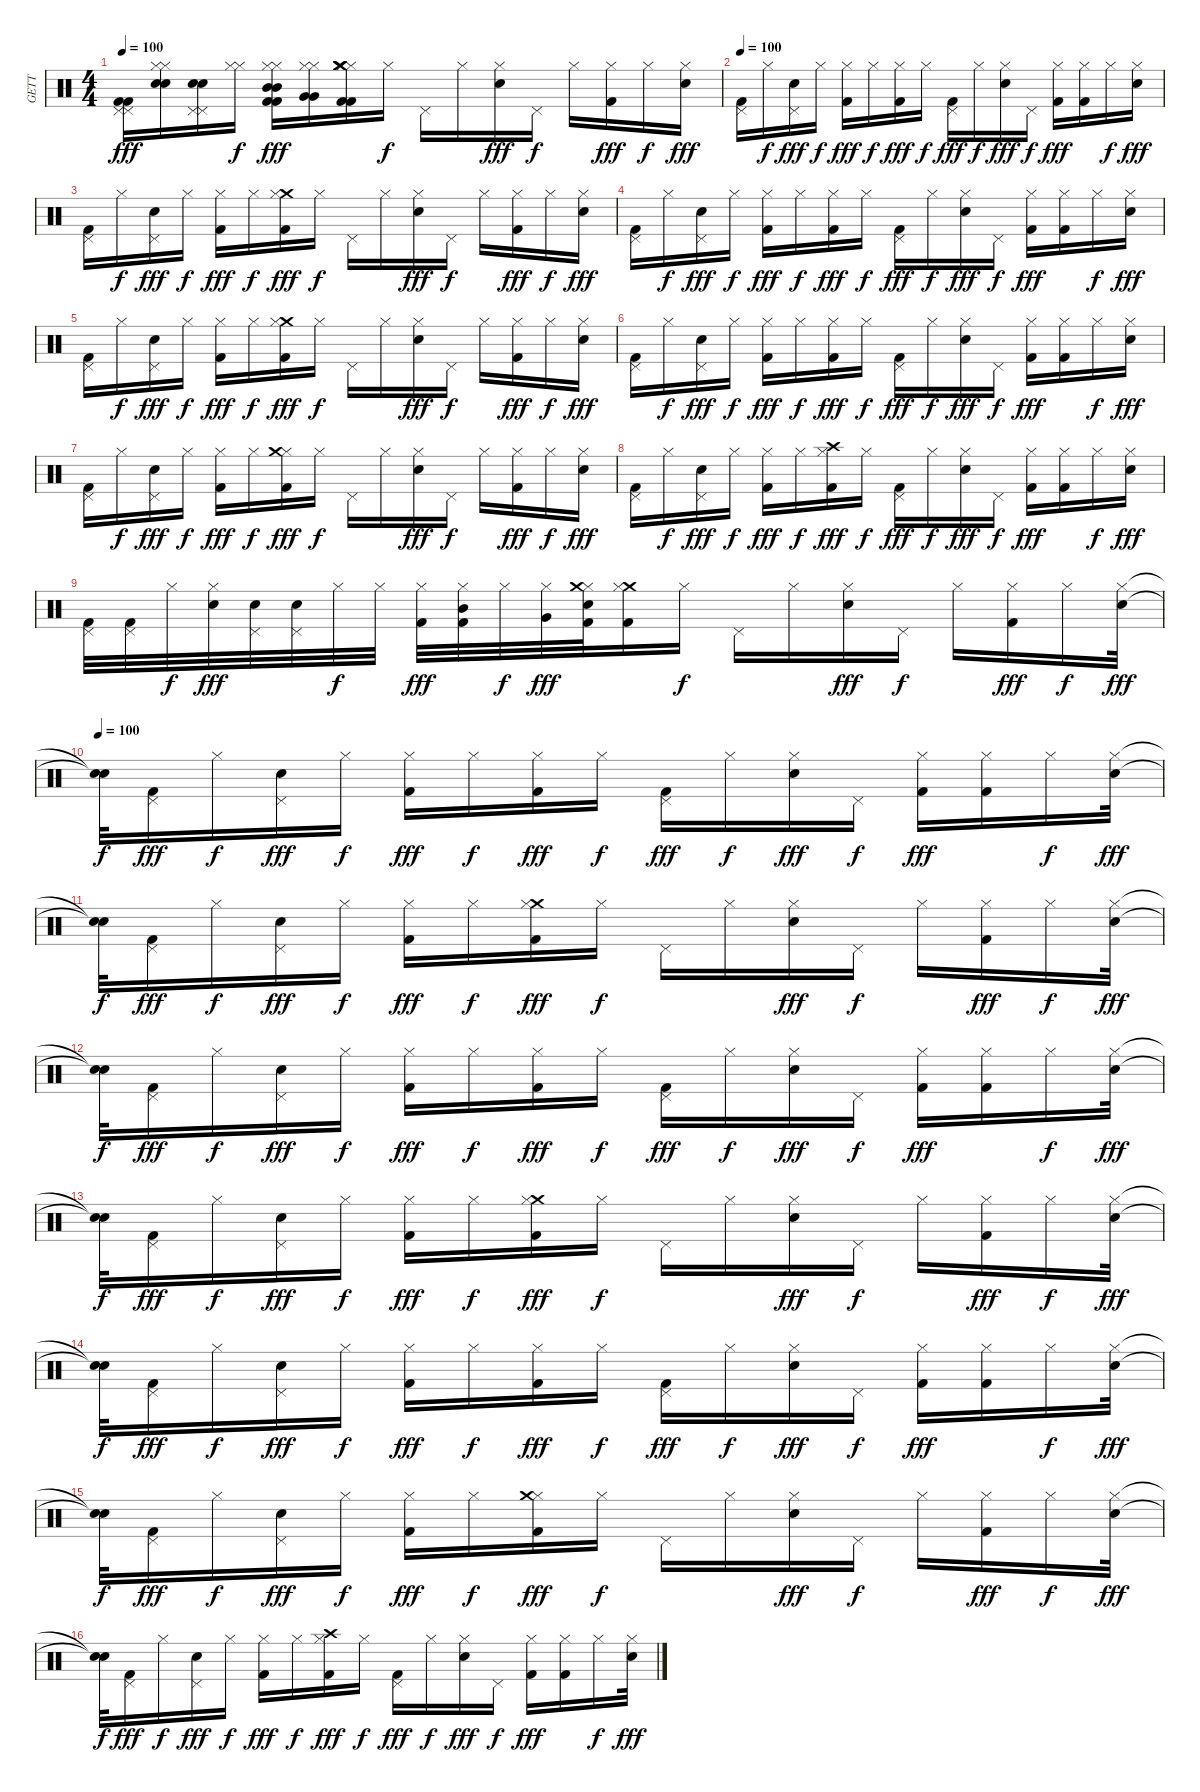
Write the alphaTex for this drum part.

\track ("GETT" "GETT") {instrument percussion}
\staff {score}
\articulation defaults
\ts (4 4)
\tempo 100
\clef neutral
\ks c
("Pedal Hi-Hat (hit)" "Kick (hit) 2" "Pedal Hi-Hat (hit)" "Kick (hit) 2").16{dy fff volume 16} ("Hi-Hat (closed)" "Snare (hit) 2" "Hi-Hat (closed)" "Snare (hit) 2").16 ("Pedal Hi-Hat (hit)" "Snare (hit) 2" "Pedal Hi-Hat (hit)" "Snare (hit) 2").16 ("Hi-Hat (closed)" "Hi-Hat (closed)").16{dy f} ("Mid Tom (hit)" "Hi-Hat (closed)" "Kick (hit) 2" "Mid Tom (hit)" "Hi-Hat (closed)" "Kick (hit) 2").16{dy fff} ("Very Low Tom (hit)" "Hi-Hat (closed)" "Very Low Tom (hit)" "Hi-Hat (closed)").16 ("Hi-Hat (closed)" "Crash medium (hit)" "Kick (hit) 2" "Kick (hit) 2" "Crash medium (hit)" "Hi-Hat (closed)").16 "Hi-Hat (closed)".16{dy f} "Pedal Hi-Hat (hit)".16 "Hi-Hat (closed)".16 ("Hi-Hat (closed)" "Snare (hit) 2").16{dy fff} "Pedal Hi-Hat (hit)".16{dy f} "Hi-Hat (closed)".16 ("Kick (hit) 2" "Hi-Hat (closed)").16{dy fff} "Hi-Hat (closed)".16{dy f} ("Snare (hit) 2" "Hi-Hat (closed)").16{dy fff} |
\tempo 100
("Pedal Hi-Hat (hit)" "Kick (hit) 2").16 "Hi-Hat (closed)".16{dy f} ("Pedal Hi-Hat (hit)" "Snare (hit) 2").16{dy fff} "Hi-Hat (closed)".16{dy f} ("Hi-Hat (closed)" "Kick (hit) 2").16{dy fff} "Hi-Hat (closed)".16{dy f} ("Kick (hit) 2" "Hi-Hat (closed)").16{dy fff} "Hi-Hat (closed)".16{dy f} ("Pedal Hi-Hat (hit)" "Kick (hit) 2").16{dy fff} "Hi-Hat (closed)".16{dy f} ("Hi-Hat (closed)" "Snare (hit) 2").16{dy fff} "Pedal Hi-Hat (hit)".16{dy f} ("Kick (hit) 2" "Hi-Hat (closed)").16{dy fff} ("Hi-Hat (closed)" "Kick (hit) 2").16 "Hi-Hat (closed)".16{dy f} ("Snare (hit) 2" "Hi-Hat (closed)").16{dy fff} |
("Kick (hit) 2" "Pedal Hi-Hat (hit)").16 "Hi-Hat (closed)".16{dy f} ("Snare (hit) 2" "Pedal Hi-Hat (hit)").16{dy fff} "Hi-Hat (closed)".16{dy f} ("Hi-Hat (closed)" "Kick (hit) 2").16{dy fff} "Hi-Hat (closed)".16{dy f} ("Kick (hit) 2" "Crash medium (hit)" "Hi-Hat (closed)").16{dy fff} "Hi-Hat (closed)".16{dy f} "Pedal Hi-Hat (hit)".16 "Hi-Hat (closed)".16 ("Hi-Hat (closed)" "Snare (hit) 2").16{dy fff} "Pedal Hi-Hat (hit)".16{dy f} "Hi-Hat (closed)".16 ("Kick (hit) 2" "Hi-Hat (closed)").16{dy fff} "Hi-Hat (closed)".16{dy f} ("Snare (hit) 2" "Hi-Hat (closed)").16{dy fff} |
("Pedal Hi-Hat (hit)" "Kick (hit) 2").16 "Hi-Hat (closed)".16{dy f} ("Pedal Hi-Hat (hit)" "Snare (hit) 2").16{dy fff} "Hi-Hat (closed)".16{dy f} ("Hi-Hat (closed)" "Kick (hit) 2").16{dy fff} "Hi-Hat (closed)".16{dy f} ("Kick (hit) 2" "Hi-Hat (closed)").16{dy fff} "Hi-Hat (closed)".16{dy f} ("Kick (hit) 2" "Pedal Hi-Hat (hit)").16{dy fff} "Hi-Hat (closed)".16{dy f} ("Snare (hit) 2" "Hi-Hat (closed)").16{dy fff} "Pedal Hi-Hat (hit)".16{dy f} ("Kick (hit) 2" "Hi-Hat (closed)").16{dy fff} ("Kick (hit) 2" "Hi-Hat (closed)").16 "Hi-Hat (closed)".16{dy f} ("Snare (hit) 2" "Hi-Hat (closed)").16{dy fff} |
("Pedal Hi-Hat (hit)" "Kick (hit) 2").16 "Hi-Hat (closed)".16{dy f} ("Pedal Hi-Hat (hit)" "Snare (hit) 2").16{dy fff} "Hi-Hat (closed)".16{dy f} ("Kick (hit) 2" "Hi-Hat (closed)").16{dy fff} "Hi-Hat (closed)".16{dy f} ("Crash medium (hit)" "Hi-Hat (closed)" "Kick (hit) 2").16{dy fff} "Hi-Hat (closed)".16{dy f} "Pedal Hi-Hat (hit)".16 "Hi-Hat (closed)".16 ("Hi-Hat (closed)" "Snare (hit) 2").16{dy fff} "Pedal Hi-Hat (hit)".16{dy f} "Hi-Hat (closed)".16 ("Hi-Hat (closed)" "Kick (hit) 2").16{dy fff} "Hi-Hat (closed)".16{dy f} ("Hi-Hat (closed)" "Snare (hit) 2").16{dy fff} |
("Pedal Hi-Hat (hit)" "Kick (hit) 2").16 "Hi-Hat (closed)".16{dy f} ("Pedal Hi-Hat (hit)" "Snare (hit) 2").16{dy fff} "Hi-Hat (closed)".16{dy f} ("Hi-Hat (closed)" "Kick (hit) 2").16{dy fff} "Hi-Hat (closed)".16{dy f} ("Kick (hit) 2" "Hi-Hat (closed)").16{dy fff} "Hi-Hat (closed)".16{dy f} ("Pedal Hi-Hat (hit)" "Kick (hit) 2").16{dy fff} "Hi-Hat (closed)".16{dy f} ("Hi-Hat (closed)" "Snare (hit) 2").16{dy fff} "Pedal Hi-Hat (hit)".16{dy f} ("Hi-Hat (closed)" "Kick (hit) 2").16{dy fff} ("Kick (hit) 2" "Hi-Hat (closed)").16 "Hi-Hat (closed)".16{dy f} ("Hi-Hat (closed)" "Snare (hit) 2").16{dy fff} |
("Pedal Hi-Hat (hit)" "Kick (hit) 2").16 "Hi-Hat (closed)".16{dy f} ("Pedal Hi-Hat (hit)" "Snare (hit) 2").16{dy fff} "Hi-Hat (closed)".16{dy f} ("Hi-Hat (closed)" "Kick (hit) 2").16{dy fff} "Hi-Hat (closed)".16{dy f} ("Kick (hit) 2" "Hi-Hat (closed)" "Crash medium (hit)").16{dy fff} "Hi-Hat (closed)".16{dy f} "Pedal Hi-Hat (hit)".16 "Hi-Hat (closed)".16 ("Hi-Hat (closed)" "Snare (hit) 2").16{dy fff} "Pedal Hi-Hat (hit)".16{dy f} "Hi-Hat (closed)".16 ("Hi-Hat (closed)" "Kick (hit) 2").16{dy fff} "Hi-Hat (closed)".16{dy f} ("Hi-Hat (closed)" "Snare (hit) 2").16{dy fff} |
("Pedal Hi-Hat (hit)" "Kick (hit) 2").16 "Hi-Hat (closed)".16{dy f} ("Pedal Hi-Hat (hit)" "Snare (hit) 2").16{dy fff} "Hi-Hat (closed)".16{dy f} ("Hi-Hat (closed)" "Kick (hit) 2").16{dy fff} "Hi-Hat (closed)".16{dy f} ("Crash high (hit)" "Hi-Hat (closed)" "Kick (hit) 2").16{dy fff} "Hi-Hat (closed)".16{dy f} ("Pedal Hi-Hat (hit)" "Kick (hit) 2").16{dy fff} "Hi-Hat (closed)".16{dy f} ("Hi-Hat (closed)" "Snare (hit) 2").16{dy fff} "Pedal Hi-Hat (hit)".16{dy f} ("Kick (hit) 2" "Hi-Hat (closed)").16{dy fff} ("Kick (hit) 2" "Hi-Hat (closed)").16 "Hi-Hat (closed)".16{dy f} ("Hi-Hat (closed)" "Snare (hit) 2").16{dy fff} |
("Pedal Hi-Hat (hit)" "Kick (hit) 2").32 ("Pedal Hi-Hat (hit)" "Kick (hit) 2").32{volume 16} "Hi-Hat (closed)".32{dy f} ("Hi-Hat (closed)" "Snare (hit) 2").32{dy fff} ("Snare (hit) 2" "Pedal Hi-Hat (hit)").32 ("Pedal Hi-Hat (hit)" "Snare (hit) 2").32 "Hi-Hat (closed)".32{dy f} "Hi-Hat (closed)".32 ("Kick (hit) 2" "Hi-Hat (closed)").32{dy fff} ("Mid Tom (hit)" "Hi-Hat (closed)" "Kick (hit) 2").32 "Hi-Hat (closed)".32{dy f} ("Very Low Tom (hit)" "Hi-Hat (closed)").32{dy fff} ("Hi-Hat (closed)" "Kick (hit) 2" "Crash medium (hit)" "Snare (hit) 2").32 ("Kick (hit) 2" "Crash medium (hit)" "Hi-Hat (closed)").16 "Hi-Hat (closed)".16{dy f} "Pedal Hi-Hat (hit)".16 "Hi-Hat (closed)".16 ("Hi-Hat (closed)" "Snare (hit) 2").16{dy fff} "Pedal Hi-Hat (hit)".16{dy f} "Hi-Hat (closed)".16 ("Kick (hit) 2" "Hi-Hat (closed)").16{dy fff} "Hi-Hat (closed)".16{dy f} ("Snare (hit) 2" "Hi-Hat (closed)").32{dy fff} |
\tempo 100
("Snare (hit)"{t} "Snare (hit)"{t}).32{dy f} ("Pedal Hi-Hat (hit)" "Kick (hit) 2").16{dy fff} "Hi-Hat (closed)".16{dy f} ("Pedal Hi-Hat (hit)" "Snare (hit) 2").16{dy fff} "Hi-Hat (closed)".16{dy f} ("Hi-Hat (closed)" "Kick (hit) 2").16{dy fff} "Hi-Hat (closed)".16{dy f} ("Kick (hit) 2" "Hi-Hat (closed)").16{dy fff} "Hi-Hat (closed)".16{dy f} ("Pedal Hi-Hat (hit)" "Kick (hit) 2").16{dy fff} "Hi-Hat (closed)".16{dy f} ("Hi-Hat (closed)" "Snare (hit) 2").16{dy fff} "Pedal Hi-Hat (hit)".16{dy f} ("Kick (hit) 2" "Hi-Hat (closed)").16{dy fff} ("Hi-Hat (closed)" "Kick (hit) 2").16 "Hi-Hat (closed)".16{dy f} ("Snare (hit) 2" "Hi-Hat (closed)").32{dy fff} |
("Snare (hit)"{t} "Snare (hit)"{t}).32{dy f} ("Kick (hit) 2" "Pedal Hi-Hat (hit)").16{dy fff} "Hi-Hat (closed)".16{dy f} ("Snare (hit) 2" "Pedal Hi-Hat (hit)").16{dy fff} "Hi-Hat (closed)".16{dy f} ("Hi-Hat (closed)" "Kick (hit) 2").16{dy fff} "Hi-Hat (closed)".16{dy f} ("Kick (hit) 2" "Crash medium (hit)" "Hi-Hat (closed)").16{dy fff} "Hi-Hat (closed)".16{dy f} "Pedal Hi-Hat (hit)".16 "Hi-Hat (closed)".16 ("Hi-Hat (closed)" "Snare (hit) 2").16{dy fff} "Pedal Hi-Hat (hit)".16{dy f} "Hi-Hat (closed)".16 ("Kick (hit) 2" "Hi-Hat (closed)").16{dy fff} "Hi-Hat (closed)".16{dy f} ("Snare (hit) 2" "Hi-Hat (closed)").32{dy fff} |
("Snare (hit)"{t} "Snare (hit)"{t}).32{dy f} ("Pedal Hi-Hat (hit)" "Kick (hit) 2").16{dy fff} "Hi-Hat (closed)".16{dy f} ("Pedal Hi-Hat (hit)" "Snare (hit) 2").16{dy fff} "Hi-Hat (closed)".16{dy f} ("Hi-Hat (closed)" "Kick (hit) 2").16{dy fff} "Hi-Hat (closed)".16{dy f} ("Kick (hit) 2" "Hi-Hat (closed)").16{dy fff} "Hi-Hat (closed)".16{dy f} ("Kick (hit) 2" "Pedal Hi-Hat (hit)").16{dy fff} "Hi-Hat (closed)".16{dy f} ("Snare (hit) 2" "Hi-Hat (closed)").16{dy fff} "Pedal Hi-Hat (hit)".16{dy f} ("Kick (hit) 2" "Hi-Hat (closed)").16{dy fff} ("Kick (hit) 2" "Hi-Hat (closed)").16 "Hi-Hat (closed)".16{dy f} ("Snare (hit) 2" "Hi-Hat (closed)").32{dy fff} |
("Snare (hit)"{t} "Snare (hit)"{t}).32{dy f} ("Pedal Hi-Hat (hit)" "Kick (hit) 2").16{dy fff} "Hi-Hat (closed)".16{dy f} ("Pedal Hi-Hat (hit)" "Snare (hit) 2").16{dy fff} "Hi-Hat (closed)".16{dy f} ("Kick (hit) 2" "Hi-Hat (closed)").16{dy fff} "Hi-Hat (closed)".16{dy f} ("Crash medium (hit)" "Hi-Hat (closed)" "Kick (hit) 2").16{dy fff} "Hi-Hat (closed)".16{dy f} "Pedal Hi-Hat (hit)".16 "Hi-Hat (closed)".16 ("Hi-Hat (closed)" "Snare (hit) 2").16{dy fff} "Pedal Hi-Hat (hit)".16{dy f} "Hi-Hat (closed)".16 ("Hi-Hat (closed)" "Kick (hit) 2").16{dy fff} "Hi-Hat (closed)".16{dy f} ("Hi-Hat (closed)" "Snare (hit) 2").32{dy fff} |
("Snare (hit)"{t} "Snare (hit)"{t}).32{dy f} ("Pedal Hi-Hat (hit)" "Kick (hit) 2").16{dy fff} "Hi-Hat (closed)".16{dy f} ("Pedal Hi-Hat (hit)" "Snare (hit) 2").16{dy fff} "Hi-Hat (closed)".16{dy f} ("Hi-Hat (closed)" "Kick (hit) 2").16{dy fff} "Hi-Hat (closed)".16{dy f} ("Kick (hit) 2" "Hi-Hat (closed)").16{dy fff} "Hi-Hat (closed)".16{dy f} ("Pedal Hi-Hat (hit)" "Kick (hit) 2").16{dy fff} "Hi-Hat (closed)".16{dy f} ("Hi-Hat (closed)" "Snare (hit) 2").16{dy fff} "Pedal Hi-Hat (hit)".16{dy f} ("Hi-Hat (closed)" "Kick (hit) 2").16{dy fff} ("Kick (hit) 2" "Hi-Hat (closed)").16 "Hi-Hat (closed)".16{dy f} ("Hi-Hat (closed)" "Snare (hit) 2").32{dy fff} |
("Snare (hit)"{t} "Snare (hit)"{t}).32{dy f} ("Pedal Hi-Hat (hit)" "Kick (hit) 2").16{dy fff} "Hi-Hat (closed)".16{dy f} ("Pedal Hi-Hat (hit)" "Snare (hit) 2").16{dy fff} "Hi-Hat (closed)".16{dy f} ("Hi-Hat (closed)" "Kick (hit) 2").16{dy fff} "Hi-Hat (closed)".16{dy f} ("Kick (hit) 2" "Hi-Hat (closed)" "Crash medium (hit)").16{dy fff} "Hi-Hat (closed)".16{dy f} "Pedal Hi-Hat (hit)".16 "Hi-Hat (closed)".16 ("Hi-Hat (closed)" "Snare (hit) 2").16{dy fff} "Pedal Hi-Hat (hit)".16{dy f} "Hi-Hat (closed)".16 ("Hi-Hat (closed)" "Kick (hit) 2").16{dy fff} "Hi-Hat (closed)".16{dy f} ("Hi-Hat (closed)" "Snare (hit) 2").32{dy fff} |
("Snare (hit)"{t} "Snare (hit)"{t}).32{dy f} ("Pedal Hi-Hat (hit)" "Kick (hit) 2").16{dy fff} "Hi-Hat (closed)".16{dy f} ("Pedal Hi-Hat (hit)" "Snare (hit) 2").16{dy fff} "Hi-Hat (closed)".16{dy f} ("Hi-Hat (closed)" "Kick (hit) 2").16{dy fff} "Hi-Hat (closed)".16{dy f} ("Crash high (hit)" "Hi-Hat (closed)" "Kick (hit) 2").16{dy fff} "Hi-Hat (closed)".16{dy f} ("Pedal Hi-Hat (hit)" "Kick (hit) 2").16{dy fff} "Hi-Hat (closed)".16{dy f} ("Hi-Hat (closed)" "Snare (hit) 2").16{dy fff} "Pedal Hi-Hat (hit)".16{dy f} ("Kick (hit) 2" "Hi-Hat (closed)").16{dy fff} ("Kick (hit) 2" "Hi-Hat (closed)").16 "Hi-Hat (closed)".16{dy f} ("Hi-Hat (closed)" "Snare (hit) 2").32{dy fff}
